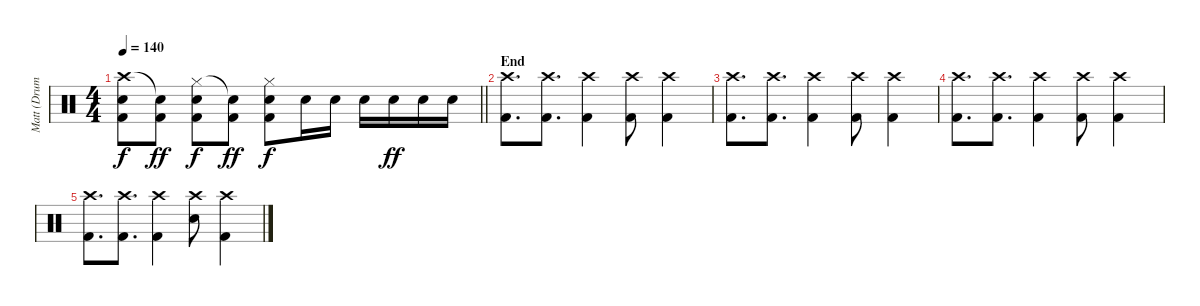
\track ("Matt (Drums)" "Matt (Drum") {instrument percussion}
\staff {score}
\articulation defaults
\ts (4 4)
\tempo 140
\clef neutral
\barLineRight lightlight
\ks c
("Crash high (hit)" "Snare (hit) 2" "Kick (hit) 2").8{dy f} ("Snare (hit)"{t} "Kick (hit) 2").8{dy ff} ("Hi-Hat (closed)" "Snare (hit) 2" "Kick (hit) 2").8{dy f} ("Snare (hit)"{t} "Kick (hit) 2").8{dy ff} ("Hi-Hat (closed)" "Snare (hit) 2" "Kick (hit) 2").8{dy f} "Snare (hit) 2".16 "Snare (hit) 2".16 "Snare (hit) 2".16 "Snare (hit) 2".16{dy ff} "Snare (hit) 2".16 "Snare (hit) 2".16 |
\section ("" "End")
("Crash high (hit)" "Kick (hit) 2").8{d} ("Crash high (hit)" "Kick (hit) 2").8{d} ("Crash high (hit)" "Kick (hit) 2").4 ("Crash high (hit)" "Kick (hit) 2").8 ("Crash high (hit)" "Kick (hit) 2").4 |
("Crash high (hit)" "Kick (hit) 2").8{d} ("Crash high (hit)" "Kick (hit) 2").8{d} ("Crash high (hit)" "Kick (hit) 2").4 ("Crash high (hit)" "Kick (hit) 2").8 ("Crash high (hit)" "Kick (hit) 2").4 |
("Crash high (hit)" "Kick (hit) 2").8{d} ("Crash high (hit)" "Kick (hit) 2").8{d} ("Crash high (hit)" "Kick (hit) 2").4 ("Crash high (hit)" "Kick (hit) 2").8 ("Crash high (hit)" "Kick (hit) 2").4 |
("Crash high (hit)" "Kick (hit) 2").8{d} ("Crash high (hit)" "Kick (hit) 2").8{d} ("Crash high (hit)" "Kick (hit) 2").4 ("Crash high (hit)" "Snare (hit) 2").8 ("Crash high (hit)" "Kick (hit) 2").4
